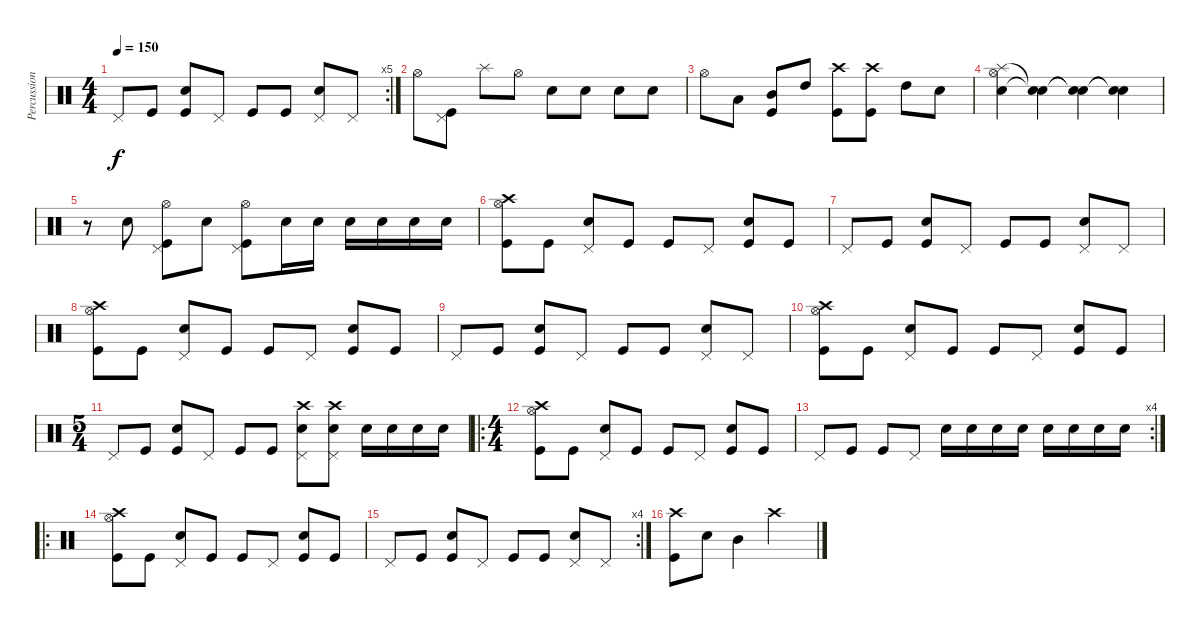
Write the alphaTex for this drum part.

\track ("Percussion" "Percussion") {instrument percussion}
\staff {score}
\articulation defaults
\rc 5
\ts (4 4)
\tempo 150
\clef neutral
\ks c "Pedal Hi-Hat (hit)".8{dy f} "Kick (hit)".8
("Kick (hit)" "Snare (hit) 2").8 "Pedal Hi-Hat (hit)".8 "Kick (hit)".8 "Kick (hit)".8 ("Pedal Hi-Hat (hit)" "Snare (hit) 2").8 "Pedal Hi-Hat (hit)".8 |
"Hi-Hat (open)".8 ("Kick (hit)" "Pedal Hi-Hat (hit)").8 "Splash (hit)".8 "Hi-Hat (open)".8 "Snare (hit) 2".8 "Snare (hit) 2".8 "Snare (hit)".8 "Snare (hit) 2".8 |
"Hi-Hat (open)".8 "Low Tom (hit)".8 ("Kick (hit)" "Mid Tom (hit)").8 "High Tom (hit)".8 ("Kick (hit)" "Crash high (hit)").8 ("Kick (hit)" "Crash high (hit)").8 "High Tom (hit)".8 "Snare (hit) 2".8 |
("Snare (hit) 2" "Splash (hit)" "Hi-Hat (open)").4 ("Snare (hit)"{t} "Snare (hit)"{t}).4 ("Snare (hit)"{t} "Snare (hit)"{t}).4 ("Snare (hit)"{t} "Snare (hit)"{t}).4 |
r.8 "Snare (hit) 2".8 ("Kick (hit)" "Pedal Hi-Hat (hit)" "Hi-Hat (open)").8 "Snare (hit) 2".8 ("Kick (hit)" "Pedal Hi-Hat (hit)" "Hi-Hat (open)").8 "Snare (hit) 2".16 "Snare (hit) 2".16 "Snare (hit) 2".16 "Snare (hit) 2".16 "Snare (hit) 2".16 "Snare (hit) 2".16 |
("Kick (hit)" "Hi-Hat (open)" "Crash high (hit)").8 "Kick (hit)".8 ("Pedal Hi-Hat (hit)" "Snare (hit) 2").8 "Kick (hit)".8 "Kick (hit)".8 "Pedal Hi-Hat (hit)".8 ("Kick (hit)" "Snare (hit) 2").8 "Kick (hit)".8 |
"Pedal Hi-Hat (hit)".8 "Kick (hit)".8 ("Kick (hit)" "Snare (hit) 2").8 "Pedal Hi-Hat (hit)".8 "Kick (hit)".8 "Kick (hit)".8 ("Pedal Hi-Hat (hit)" "Snare (hit) 2").8 "Pedal Hi-Hat (hit)".8 |
("Kick (hit)" "Crash high (hit)" "Hi-Hat (open)").8 "Kick (hit)".8 ("Pedal Hi-Hat (hit)" "Snare (hit) 2").8 "Kick (hit)".8 "Kick (hit)".8 "Pedal Hi-Hat (hit)".8 ("Kick (hit)" "Snare (hit) 2").8 "Kick (hit)".8 |
"Pedal Hi-Hat (hit)".8 "Kick (hit)".8 ("Kick (hit)" "Snare (hit) 2").8 "Pedal Hi-Hat (hit)".8 "Kick (hit)".8 "Kick (hit)".8 ("Pedal Hi-Hat (hit)" "Snare (hit) 2").8 "Pedal Hi-Hat (hit)".8 |
("Kick (hit)" "Hi-Hat (open)" "Crash high (hit)").8 "Kick (hit)".8 ("Pedal Hi-Hat (hit)" "Snare (hit) 2").8 "Kick (hit)".8 "Kick (hit)".8 "Pedal Hi-Hat (hit)".8 ("Kick (hit)" "Snare (hit) 2").8 "Kick (hit)".8 |
\ts (5 4)
"Pedal Hi-Hat (hit)".8 "Kick (hit)".8 ("Kick (hit)" "Snare (hit) 2").8 "Pedal Hi-Hat (hit)".8 "Kick (hit)".8 "Kick (hit)".8 ("Pedal Hi-Hat (hit)" "Snare (hit) 2" "Crash high (hit)").8 ("Pedal Hi-Hat (hit)" "Snare (hit) 2" "Crash high (hit)").8 "Snare (hit) 2".16 "Snare (hit) 2".16 "Snare (hit) 2".16 "Snare (hit) 2".16 |
\ro
\ts (4 4)
("Kick (hit)" "Hi-Hat (open)" "Crash high (hit)").8 "Kick (hit)".8 ("Pedal Hi-Hat (hit)" "Snare (hit) 2").8 "Kick (hit)".8 "Kick (hit)".8 "Pedal Hi-Hat (hit)".8 ("Kick (hit)" "Snare (hit) 2").8 "Kick (hit)".8 |
\rc 4 "Pedal Hi-Hat (hit)".8 "Kick (hit)".8 "Kick (hit)".8 "Pedal Hi-Hat (hit)".8 "Snare (hit) 2".16 "Snare (hit) 2".16 "Snare (hit) 2".16 "Snare (hit) 2".16 "Snare (hit) 2".16 "Snare (hit) 2".16 "Snare (hit) 2".16 "Snare (hit) 2".16
|
\ro
("Kick (hit)" "Hi-Hat (open)" "Crash high (hit)").8 "Kick (hit)".8 ("Pedal Hi-Hat (hit)" "Snare (hit) 2").8 "Kick (hit)".8 "Kick (hit)".8 "Pedal Hi-Hat (hit)".8 ("Kick (hit)" "Snare (hit) 2").8 "Kick (hit)".8 |
\rc 4 "Pedal Hi-Hat (hit)".8 "Kick (hit)".8
("Kick (hit)" "Snare (hit) 2").8 "Pedal Hi-Hat (hit)".8 "Kick (hit)".8 "Kick (hit)".8 ("Pedal Hi-Hat (hit)" "Snare (hit) 2").8 "Pedal Hi-Hat (hit)".8 |
("Kick (hit)" "Crash high (hit)").8 "Snare (hit) 2".8 "Mid Tom (hit)".4 "Crash high (hit)".2
